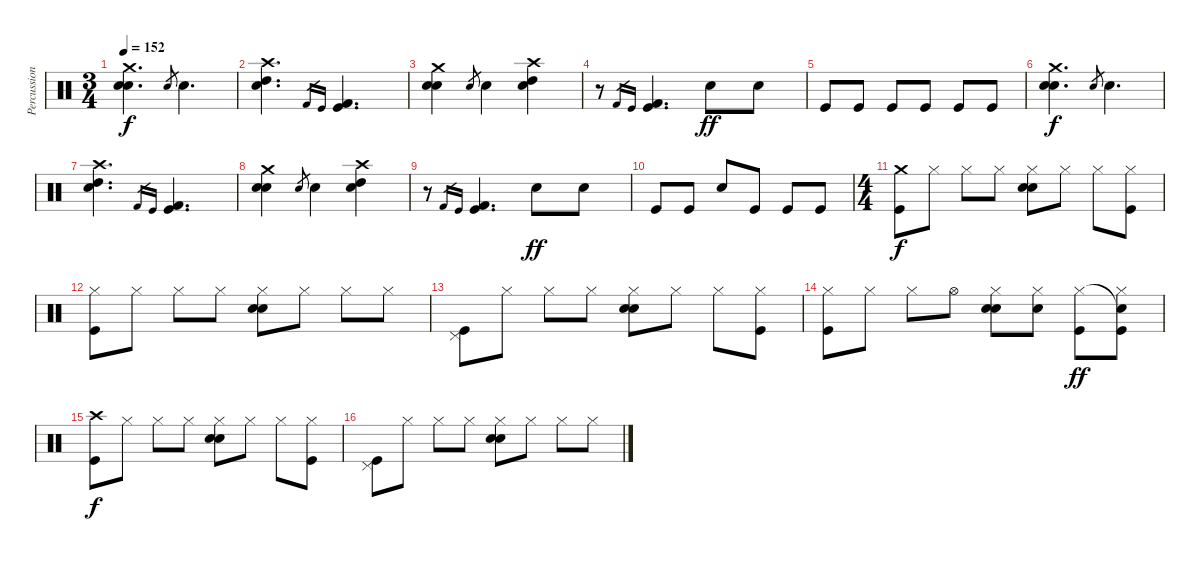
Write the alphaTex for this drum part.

\track ("Percussion" "Percussion") {instrument percussion}
\staff {score}
\articulation defaults
\ts (3 4)
\tempo 152
\clef neutral
\ks c
("Crash medium (hit)" "Snare (hit) 2" "Electric Snare (hit)").4{d dy f} "Snare (hit) 2".8{gr} "Snare (hit) 2".4{d} |
("Crash high (hit)" "High Tom (hit)" "Electric Snare (hit)").4{d} "Kick (hit) 2".16{gr} "Kick (hit)".16{gr} ("Kick (hit) 2" "Kick (hit)").4{d} |
("Crash medium (hit)" "Snare (hit) 2" "Electric Snare (hit)").4 "Snare (hit) 2".8{gr} "Snare (hit) 2".4 ("Crash high (hit)" "High Tom (hit)" "Electric Snare (hit)").4 |
r.8 "Kick (hit) 2".16{gr} "Kick (hit)".16{gr} ("Kick (hit) 2" "Kick (hit)").4{d} "Snare (hit) 2".8{dy ff} "Snare (hit) 2".8 |
"Kick (hit)".8 "Kick (hit)".8 "Kick (hit)".8 "Kick (hit)".8 "Kick (hit)".8 "Kick (hit)".8 |
("Crash medium (hit)" "Snare (hit) 2" "Electric Snare (hit)").4{d dy f} "Snare (hit) 2".8{gr} "Snare (hit) 2".4{d} |
("Crash high (hit)" "High Tom (hit)" "Electric Snare (hit)").4{d} "Kick (hit) 2".16{gr} "Kick (hit)".16{gr} ("Kick (hit) 2" "Kick (hit)").4{d} |
("Crash medium (hit)" "Snare (hit) 2" "Electric Snare (hit)").4 "Snare (hit) 2".8{gr} "Snare (hit) 2".4 ("Crash high (hit)" "High Tom (hit)" "Electric Snare (hit)").4 |
r.8 "Kick (hit) 2".16{gr} "Kick (hit)".16{gr} ("Kick (hit) 2" "Kick (hit)").4{d} "Snare (hit) 2".8{dy ff} "Snare (hit) 2".8 |
"Kick (hit)".8 "Kick (hit)".8 "Snare (hit) 2".8 "Kick (hit)".8 "Kick (hit)".8 "Kick (hit)".8 |
\ts (4 4)
("Crash medium (hit)" "Kick (hit)").8{dy f} "Hi-Hat (closed)".8 "Hi-Hat (closed)".8 "Hi-Hat (closed)".8 ("Hi-Hat (closed)" "Snare (hit) 2" "Electric Snare (hit)").8 "Hi-Hat (closed)".8 "Hi-Hat (closed)".8 ("Hi-Hat (closed)" "Kick (hit)").8 |
("Hi-Hat (closed)" "Kick (hit)").8 "Hi-Hat (closed)".8 "Hi-Hat (closed)".8 "Hi-Hat (closed)".8 ("Hi-Hat (closed)" "Snare (hit) 2" "Electric Snare (hit)").8 "Hi-Hat (closed)".8 "Hi-Hat (closed)".8 "Hi-Hat (closed)".8 |
("Pedal Hi-Hat (hit)" "Kick (hit)").8 "Hi-Hat (closed)".8 "Hi-Hat (closed)".8 "Hi-Hat (closed)".8 ("Hi-Hat (closed)" "Snare (hit) 2" "Electric Snare (hit)").8 "Hi-Hat (closed)".8 "Hi-Hat (closed)".8 ("Hi-Hat (closed)" "Kick (hit)").8 |
("Hi-Hat (closed)" "Kick (hit)").8 "Hi-Hat (closed)".8 "Hi-Hat (closed)".8 "Hi-Hat (open)".8 ("Hi-Hat (closed)" "Snare (hit) 2" "Electric Snare (hit)").8 ("Hi-Hat (closed)" "Snare (hit) 2").8 ("Hi-Hat (closed)" "Kick (hit)").8{dy ff} ("Snare (hit)"{t} "Hi-Hat (closed)" "Kick (hit)").8 |
("Crash high (hit)" "Kick (hit)").8{dy f} "Hi-Hat (closed)".8 "Hi-Hat (closed)".8 "Hi-Hat (closed)".8 ("Hi-Hat (closed)" "Snare (hit) 2" "Electric Snare (hit)").8 "Hi-Hat (closed)".8 "Hi-Hat (closed)".8 ("Hi-Hat (closed)" "Kick (hit)").8 |
("Pedal Hi-Hat (hit)" "Kick (hit)").8 "Hi-Hat (closed)".8 "Hi-Hat (closed)".8 "Hi-Hat (closed)".8 ("Hi-Hat (closed)" "Snare (hit) 2" "Electric Snare (hit)").8 "Hi-Hat (closed)".8 "Hi-Hat (closed)".8 "Hi-Hat (closed)".8
